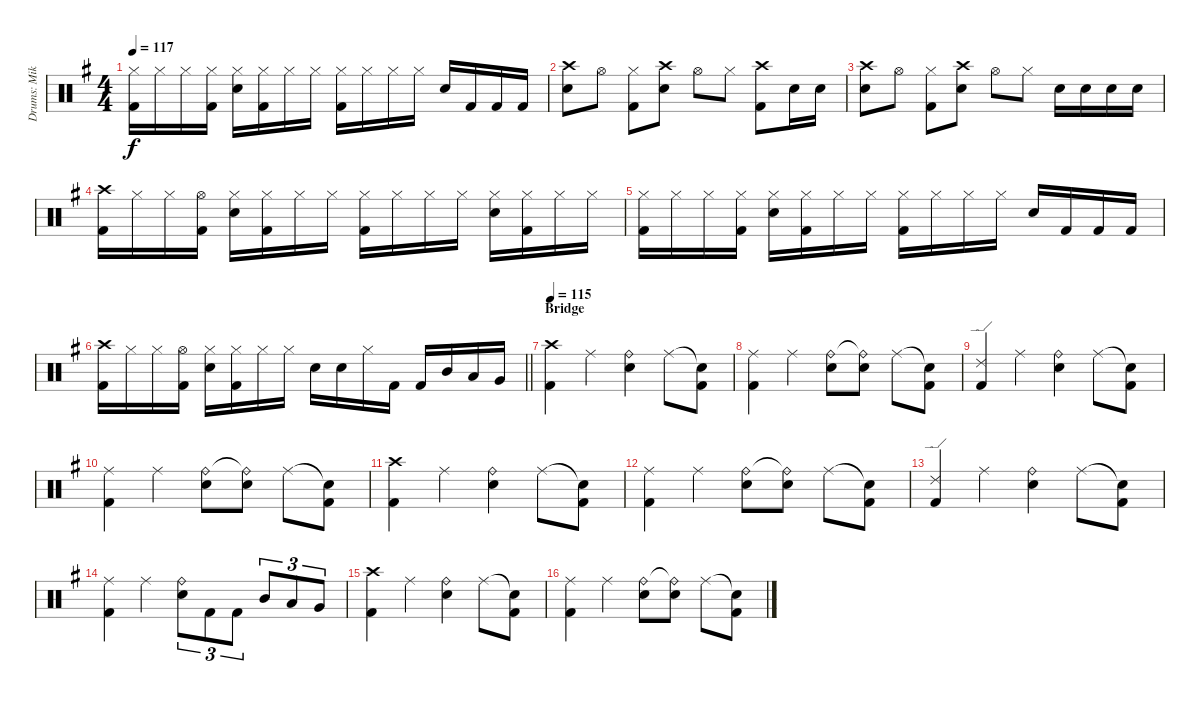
\track ("Drums: Mike" "Drums: Mik") {instrument percussion}
\staff {score}
\articulation defaults
\ts (4 4)
\tempo 117
\clef neutral
\ks g
("Hi-Hat (closed)" "Kick (hit) 2").16{dy f} "Hi-Hat (closed)".16 "Hi-Hat (closed)".16 ("Hi-Hat (closed)" "Kick (hit) 2").16 ("Hi-Hat (closed)" "Electric Snare (hit)").16 ("Hi-Hat (closed)" "Kick (hit) 2").16 "Hi-Hat (closed)".16 "Hi-Hat (closed)".16 ("Hi-Hat (closed)" "Kick (hit) 2").16 "Hi-Hat (closed)".16 "Hi-Hat (closed)".16 "Hi-Hat (closed)".16 "Electric Snare (hit)".16 "Kick (hit) 2".16 "Kick (hit) 2".16 "Kick (hit) 2".16 |
("Crash high (hit)" "Electric Snare (hit)").8 "Hi-Hat (open)".8 ("Hi-Hat (closed)" "Kick (hit) 2").8 ("Crash high (hit)" "Electric Snare (hit)").8 "Hi-Hat (open)".8 "Hi-Hat (closed)".8 ("Crash high (hit)" "Kick (hit) 2").8 "Electric Snare (hit)".16 "Electric Snare (hit)".16 |
("Crash high (hit)" "Electric Snare (hit)").8 "Hi-Hat (open)".8 ("Hi-Hat (closed)" "Kick (hit) 2").8 ("Crash high (hit)" "Electric Snare (hit)").8 "Hi-Hat (open)".8 "Hi-Hat (closed)".8 "Electric Snare (hit)".16 "Electric Snare (hit)".16 "Electric Snare (hit)".16 "Electric Snare (hit)".16 |
("Crash high (hit)" "Kick (hit) 2").16 "Hi-Hat (closed)".16 "Hi-Hat (closed)".16 ("Hi-Hat (open)" "Kick (hit) 2").16 ("Hi-Hat (closed)" "Electric Snare (hit)").16 ("Hi-Hat (closed)" "Kick (hit) 2").16 "Hi-Hat (closed)".16 "Hi-Hat (closed)".16 ("Hi-Hat (closed)" "Kick (hit) 2").16 "Hi-Hat (closed)".16 "Hi-Hat (closed)".16 "Hi-Hat (closed)".16 ("Hi-Hat (closed)" "Electric Snare (hit)").16 ("Hi-Hat (closed)" "Kick (hit) 2").16 "Hi-Hat (closed)".16 "Hi-Hat (closed)".16 |
("Hi-Hat (closed)" "Kick (hit) 2").16 "Hi-Hat (closed)".16 "Hi-Hat (closed)".16 ("Hi-Hat (closed)" "Kick (hit) 2").16 ("Hi-Hat (closed)" "Electric Snare (hit)").16 ("Hi-Hat (closed)" "Kick (hit) 2").16 "Hi-Hat (closed)".16 "Hi-Hat (closed)".16 ("Hi-Hat (closed)" "Kick (hit) 2").16 "Hi-Hat (closed)".16 "Hi-Hat (closed)".16 "Hi-Hat (closed)".16 "Electric Snare (hit)".16 "Kick (hit) 2".16 "Kick (hit) 2".16 "Kick (hit) 2".16 |
\barLineRight lightlight
("Crash high (hit)" "Kick (hit) 2").16 "Hi-Hat (closed)".16 "Hi-Hat (closed)".16 ("Hi-Hat (open)" "Kick (hit) 2").16 ("Hi-Hat (closed)" "Electric Snare (hit)").16 ("Hi-Hat (closed)" "Kick (hit) 2").16 "Hi-Hat (closed)".16 "Hi-Hat (closed)".16 "Electric Snare (hit)".16 "Electric Snare (hit)".16 "Hi-Hat (closed)".16 "Kick (hit) 2".16 "Kick (hit) 2".16 "Mid Tom (hit)".16 "Low Tom (hit)".16 "Very Low Tom (hit)".16 |
\section ("" "Bridge")
\tempo 115
("Crash high (hit)" "Kick (hit) 2").4 "Ride (middle)".4 ("Ride (bell)" "Electric Snare (hit)").4 "Ride (middle)".8 ("Snare (hit)"{t} "Kick (hit) 2").8 |
("Ride (middle)" "Kick (hit) 2").4 "Ride (middle)".4 ("Ride (bell)" "Electric Snare (hit)").8 ("Ride (bell)"{t} "Electric Snare (hit)").8 "Ride (middle)".8 ("Snare (hit)"{t} "Kick (hit) 2").8 |
("Ride (edge) 2" "Kick (hit) 2").4 "Ride (middle)".4 ("Ride (bell)" "Electric Snare (hit)").4 "Ride (middle)".8 ("Snare (hit)"{t} "Kick (hit) 2").8 |
("Ride (middle)" "Kick (hit) 2").4 "Ride (middle)".4 ("Ride (bell)" "Electric Snare (hit)").8 ("Ride (bell)"{t} "Electric Snare (hit)").8 "Ride (middle)".8 ("Snare (hit)"{t} "Kick (hit) 2").8 |
("Crash high (hit)" "Kick (hit) 2").4 "Ride (middle)".4 ("Ride (bell)" "Electric Snare (hit)").4 "Ride (middle)".8 ("Snare (hit)"{t} "Kick (hit) 2").8 |
("Ride (middle)" "Kick (hit) 2").4 "Ride (middle)".4 ("Ride (bell)" "Electric Snare (hit)").8 ("Ride (bell)"{t} "Electric Snare (hit)").8 "Ride (middle)".8 ("Snare (hit)"{t} "Kick (hit) 2").8 |
("Ride (edge) 2" "Kick (hit) 2").4 "Ride (middle)".4 ("Ride (bell)" "Electric Snare (hit)").4 "Ride (middle)".8 ("Snare (hit)"{t} "Kick (hit) 2").8 |
("Ride (middle)" "Kick (hit) 2").4 "Ride (middle)".4 ("Ride (bell)" "Electric Snare (hit)").8{tu (3 2)} "Kick (hit) 2".8{tu (3 2)} "Kick (hit) 2".8{tu (3 2)} "Mid Tom (hit)".8{tu (3 2)} "Low Tom (hit)".8{tu (3 2)} "Very Low Tom (hit)".8{tu (3 2)} |
("Crash high (hit)" "Kick (hit) 2").4 "Ride (middle)".4 ("Ride (bell)" "Electric Snare (hit)").4 "Ride (middle)".8 ("Snare (hit)"{t} "Kick (hit) 2").8 |
("Ride (middle)" "Kick (hit) 2").4 "Ride (middle)".4 ("Ride (bell)" "Electric Snare (hit)").8 ("Ride (bell)"{t} "Electric Snare (hit)").8 "Ride (middle)".8 ("Snare (hit)"{t} "Kick (hit) 2").8
